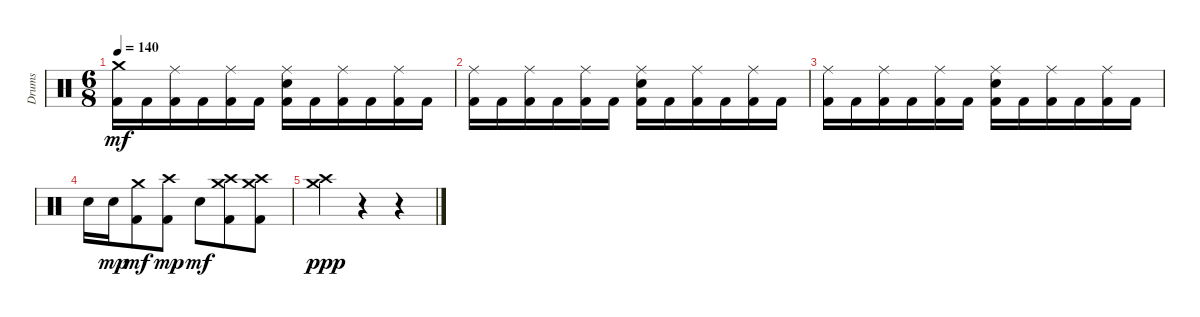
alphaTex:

\track ("Drums" "Drums") {instrument percussion}
\staff {score}
\articulation defaults
\ts (6 8)
\tempo 140
\clef neutral
\ks c
("Kick (hit) 2" "Crash medium (hit)").16{dy mf} "Kick (hit) 2".16 ("Kick (hit) 2" "Ride (middle)").16 "Kick (hit) 2".16 ("Kick (hit) 2" "Ride (middle)").16 "Kick (hit) 2".16 ("Kick (hit) 2" "Electric Snare (hit)" "Ride (middle)").16 "Kick (hit) 2".16 ("Kick (hit) 2" "Ride (middle)").16 "Kick (hit) 2".16 ("Kick (hit) 2" "Ride (middle)").16 "Kick (hit) 2".16 |
("Kick (hit) 2" "Ride (middle)").16 "Kick (hit) 2".16 ("Kick (hit) 2" "Ride (middle)").16 "Kick (hit) 2".16 ("Kick (hit) 2" "Ride (middle)").16 "Kick (hit) 2".16 ("Kick (hit) 2" "Electric Snare (hit)" "Ride (middle)").16 "Kick (hit) 2".16 ("Kick (hit) 2" "Ride (middle)").16 "Kick (hit) 2".16 ("Kick (hit) 2" "Ride (middle)").16 "Kick (hit) 2".16 |
("Kick (hit) 2" "Ride (middle)").16 "Kick (hit) 2".16 ("Kick (hit) 2" "Ride (middle)").16 "Kick (hit) 2".16 ("Kick (hit) 2" "Ride (middle)").16 "Kick (hit) 2".16 ("Kick (hit) 2" "Electric Snare (hit)" "Ride (middle)").16 "Kick (hit) 2".16 ("Kick (hit) 2" "Ride (middle)").16 "Kick (hit) 2".16 ("Kick (hit) 2" "Ride (middle)").16 "Kick (hit) 2".16 |
"Electric Snare (hit)".16 "Electric Snare (hit)".16{dy mp} ("Kick (hit) 2" "Crash medium (hit)").8{dy mf} ("Kick (hit) 2" "Crash high (hit)").8{dy mp} "Electric Snare (hit)".8{dy mf} ("Kick (hit) 2" "Crash medium (hit)" "Crash high (hit)").8 ("Kick (hit) 2" "Crash medium (hit)" "Crash high (hit)").8 |
("Crash medium (hit)" "Crash high (hit)").4{dy ppp} r.4 r.4
